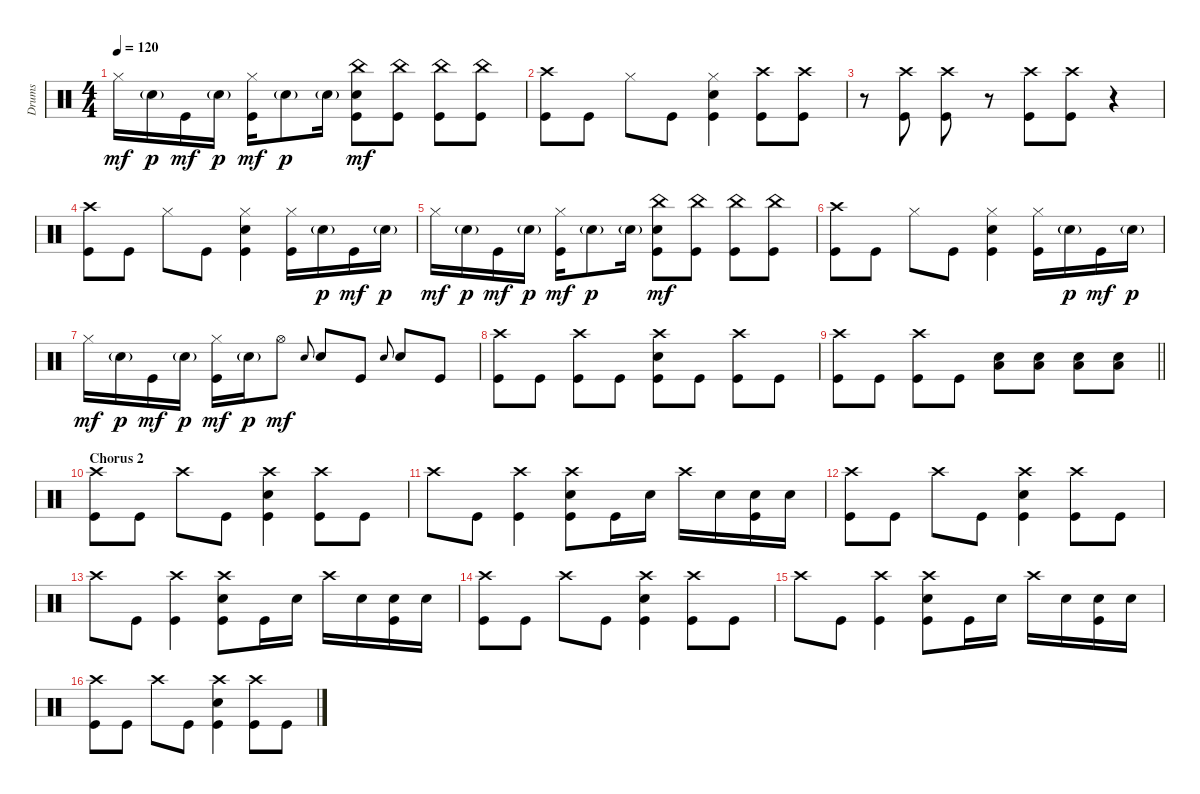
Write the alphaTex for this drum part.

\track ("Drums" "Drums") {instrument percussion}
\staff {score}
\articulation defaults
\ts (4 4)
\tempo 120
\clef neutral
\ks c "Hi-Hat (closed)".16{dy mf} "Snare (hit) 2"{g}.16{dy p} "Kick (hit)".16{dy mf} "Snare (hit) 2"{g}.16{dy p}
("Kick (hit)" "Hi-Hat (closed)").16{dy mf} "Snare (hit) 2"{g}.8{dy p} "Snare (hit) 2"{g}.16 ("Snare (hit) 2" "China (hit)" "Kick (hit)").8{dy mf} ("China (hit)" "Kick (hit)").8 ("China (hit)" "Kick (hit)").8 ("China (hit)" "Kick (hit)").8 |
("Kick (hit)" "Crash high (hit)").8 "Kick (hit)".8 "Hi-Hat (closed)".8 "Kick (hit)".8 ("Kick (hit)" "Snare (hit) 2" "Hi-Hat (closed)").4 ("Kick (hit)" "Crash high (hit)").8 ("Crash high (hit)" "Kick (hit)").8 |
r.8 ("Kick (hit)" "Crash high (hit)").8 ("Crash high (hit)" "Kick (hit)").8 r.8 ("Crash high (hit)" "Kick (hit)").8 ("Kick (hit)" "Crash high (hit)").8 r.4 |
("Kick (hit)" "Crash high (hit)").8 "Kick (hit)".8 "Hi-Hat (closed)".8 "Kick (hit)".8 ("Kick (hit)" "Snare (hit) 2" "Hi-Hat (closed)").4 ("Kick (hit)" "Hi-Hat (closed)").16 "Snare (hit) 2"{g}.16{dy p} "Kick (hit)".16{dy mf} "Snare (hit) 2"{g}.16{dy p} |
"Hi-Hat (closed)".16{dy mf} "Snare (hit) 2"{g}.16{dy p} "Kick (hit)".16{dy mf} "Snare (hit) 2"{g}.16{dy p} ("Kick (hit)" "Hi-Hat (closed)").16{dy mf} "Snare (hit) 2"{g}.8{dy p} "Snare (hit) 2"{g}.16 ("Snare (hit) 2" "China (hit)" "Kick (hit)").8{dy mf} ("China (hit)" "Kick (hit)").8 ("China (hit)" "Kick (hit)").8 ("China (hit)" "Kick (hit)").8 |
("Crash high (hit)" "Kick (hit)").8 "Kick (hit)".8 "Hi-Hat (closed)".8 "Kick (hit)".8 ("Snare (hit) 2" "Hi-Hat (closed)" "Kick (hit)").4 ("Hi-Hat (closed)" "Kick (hit)").16 "Snare (hit) 2"{g}.16{dy p} "Kick (hit)".16{dy mf} "Snare (hit) 2"{g}.16{dy p} |
"Hi-Hat (closed)".16{dy mf} "Snare (hit) 2"{g}.16{dy p} "Kick (hit)".16{dy mf} "Snare (hit) 2"{g}.16{dy p} ("Hi-Hat (closed)" "Kick (hit)").16{dy mf} "Snare (hit) 2"{g}.16{dy p} "Hi-Hat (open)".8{dy mf} "Snare (hit) 2".8{gr onbeat} "Snare (hit) 2".8{volume 13} "Kick (hit)".8 "Snare (hit) 2".8{gr onbeat} "Snare (hit) 2".8 "Kick (hit)".8 |
("Crash high (hit)" "Kick (hit)").8 "Kick (hit)".8 ("Crash high (hit)" "Kick (hit)").8 "Kick (hit)".8 ("Snare (hit) 2" "Crash high (hit)" "Kick (hit)").8 "Kick (hit)".8 ("Crash high (hit)" "Kick (hit)").8 "Kick (hit)".8 |
\barLineRight lightlight
("Crash high (hit)" "Kick (hit)").8 "Kick (hit)".8 ("Crash high (hit)" "Kick (hit)").8 "Kick (hit)".8 ("Snare (hit) 2" "Low Floor Tom (hit)").8 ("Snare (hit) 2" "Low Floor Tom (hit)").8 ("Snare (hit) 2" "Low Floor Tom (hit)").8 ("Snare (hit) 2" "Low Floor Tom (hit)").8 |
\section ("" "Chorus 2")
("Crash high (hit)" "Kick (hit)").8 "Kick (hit)".8 "Crash high (hit)".8 "Kick (hit)".8 ("Snare (hit) 2" "Crash high (hit)" "Kick (hit)").4 ("Crash high (hit)" "Kick (hit)").8 "Kick (hit)".8 |
"Crash high (hit)".8 "Kick (hit)".8 ("Crash high (hit)" "Kick (hit)").4 ("Snare (hit) 2" "Crash high (hit)" "Kick (hit)").8 "Kick (hit)".16 "Snare (hit) 2".16 "Crash high (hit)".16 "Snare (hit) 2".16 ("Kick (hit)" "Snare (hit) 2").16 "Snare (hit) 2".16 |
("Kick (hit)" "Crash high (hit)").8 "Kick (hit)".8 "Crash high (hit)".8 "Kick (hit)".8 ("Kick (hit)" "Snare (hit) 2" "Crash high (hit)").4 ("Kick (hit)" "Crash high (hit)").8 "Kick (hit)".8 |
"Crash high (hit)".8 "Kick (hit)".8 ("Crash high (hit)" "Kick (hit)").4 ("Snare (hit) 2" "Crash high (hit)" "Kick (hit)").8 "Kick (hit)".16 "Snare (hit) 2".16 "Crash high (hit)".16 "Snare (hit) 2".16 ("Snare (hit) 2" "Kick (hit)").16 "Snare (hit) 2".16 |
("Kick (hit)" "Crash high (hit)").8 "Kick (hit)".8 "Crash high (hit)".8 "Kick (hit)".8 ("Kick (hit)" "Snare (hit) 2" "Crash high (hit)").4 ("Kick (hit)" "Crash high (hit)").8 "Kick (hit)".8 |
"Crash high (hit)".8 "Kick (hit)".8 ("Kick (hit)" "Crash high (hit)").4 ("Kick (hit)" "Snare (hit) 2" "Crash high (hit)").8 "Kick (hit)".16 "Snare (hit) 2".16 "Crash high (hit)".16 "Snare (hit) 2".16 ("Snare (hit) 2" "Kick (hit)").16 "Snare (hit) 2".16 |
("Kick (hit)" "Crash high (hit)").8 "Kick (hit)".8 "Crash high (hit)".8 "Kick (hit)".8 ("Kick (hit)" "Snare (hit) 2" "Crash high (hit)").4 ("Kick (hit)" "Crash high (hit)").8 "Kick (hit)".8
